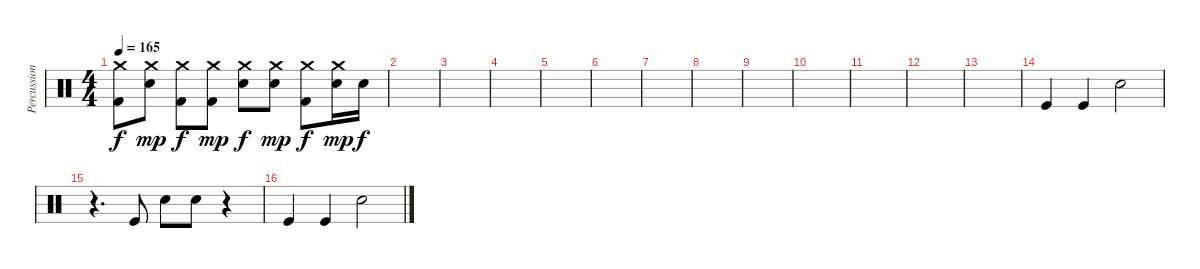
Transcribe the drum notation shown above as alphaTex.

\track ("Percussion" "Percussion") {instrument percussion}
\staff {score}
\articulation defaults
\ts (4 4)
\tempo 165
\clef neutral
\ks c
("Crash medium (hit)" "Kick (hit) 2").8{dy f} ("Crash medium (hit)" "Snare (hit) 2").8{dy mp} ("Crash medium (hit)" "Kick (hit) 2").8{dy f} ("Crash medium (hit)" "Kick (hit) 2").8{dy mp} ("Crash medium (hit)" "Snare (hit) 2").8{dy f} ("Crash medium (hit)" "Snare (hit) 2").8{dy mp} ("Crash medium (hit)" "Kick (hit) 2").8{dy f} ("Crash medium (hit)" "Snare (hit) 2").16{dy mp} "Snare (hit) 2".16{dy f} |
|
|
|
|
|
|
|
|
|
|
|
|
"Kick (hit)".4{volume 6} "Kick (hit)".4 "Electric Snare (hit)".2 |
r.4{d} "Kick (hit)".8 "Electric Snare (hit)".8 "Electric Snare (hit)".8 r.4 |
"Kick (hit)".4{volume 6} "Kick (hit)".4 "Electric Snare (hit)".2
